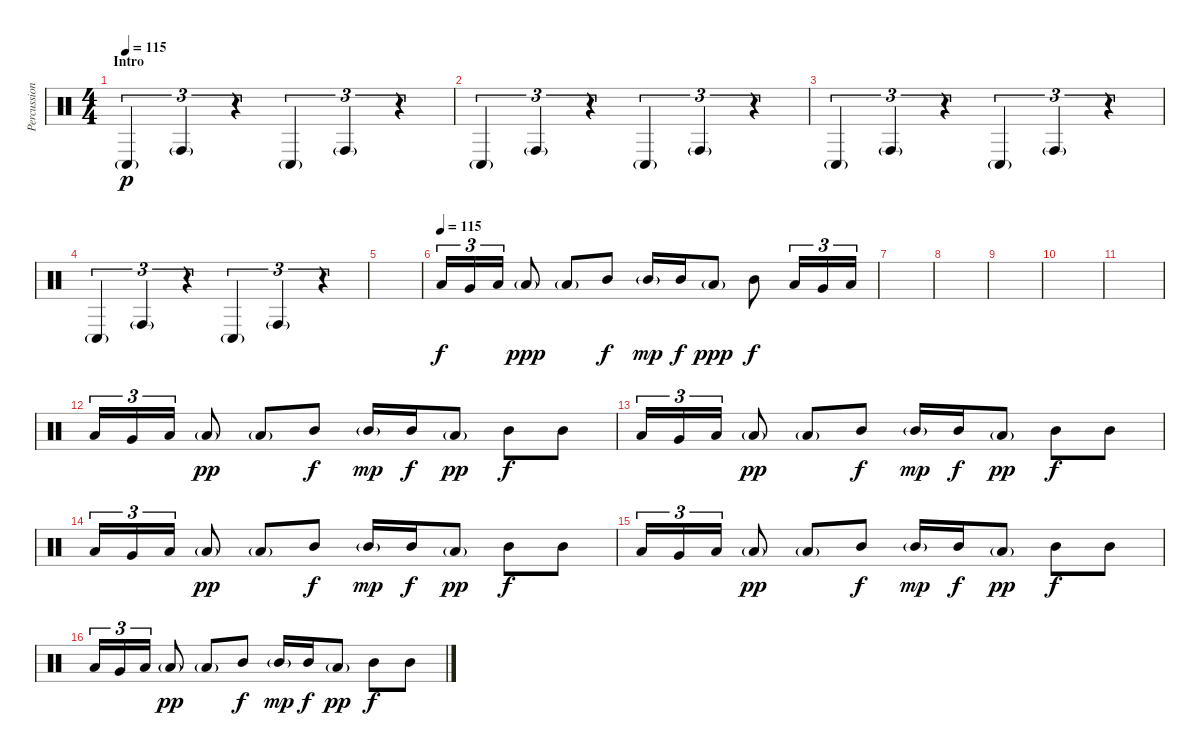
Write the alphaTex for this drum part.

\track ("Percussion - High Tom" "Percussion") {instrument percussion}
\staff {score}
\articulation defaults
\ts (4 4)
\section ("" "Intro")
\tempo 115
\tempo 109
\tempo 115
\clef neutral
\ks c "Conga low (hit)"{g}.4{tu (3 2) dy p} "Conga high (hit)"{g}.4{tu (3 2)}
r.4{tu (3 2)} "Conga low (hit)"{g}.4{tu (3 2)} "Conga high (hit)"{g}.4{tu (3 2)} r.4{tu (3 2)} |
"Conga low (hit)"{g}.4{tu (3 2)} "Conga high (hit)"{g}.4{tu (3 2)} r.4{tu (3 2)} "Conga low (hit)"{g}.4{tu (3 2)} "Conga high (hit)"{g}.4{tu (3 2)} r.4{tu (3 2)} |
"Conga low (hit)"{g}.4{tu (3 2)} "Conga high (hit)"{g}.4{tu (3 2)} r.4{tu (3 2)} "Conga low (hit)"{g}.4{tu (3 2)} "Conga high (hit)"{g}.4{tu (3 2)} r.4{tu (3 2)} |
"Conga low (hit)"{g}.4{tu (3 2)} "Conga high (hit)"{g}.4{tu (3 2)} r.4{tu (3 2)} "Conga low (hit)"{g}.4{tu (3 2)} "Conga high (hit)"{g}.4{tu (3 2)} r.4{tu (3 2)} |
|
\tempo (115)
"Low Floor Tom (hit)".16{tu (3 2) dy f} "Very Low Tom (hit)".16{tu (3 2)} "Low Floor Tom (hit)".16{tu (3 2)} "Low Tom (hit)"{g}.8{dy ppp} "Low Tom (hit)"{g}.8 "Mid Tom (hit)".8{dy f} "Mid Tom (hit)"{g}.16{dy mp} "Mid Tom (hit)".16{dy f} "Low Tom (hit)"{g}.8{dy ppp} "Mid Tom (hit)".8{dy f} "Low Floor Tom (hit)".16{tu (3 2)} "Very Low Tom (hit)".16{tu (3 2)} "Low Floor Tom (hit)".16{tu (3 2)} |
|
|
|
|
|
"Low Floor Tom (hit)".16{tu (3 2)} "Very Low Tom (hit)".16{tu (3 2)} "Low Floor Tom (hit)".16{tu (3 2)} "Low Tom (hit)"{g}.8{dy pp} "Low Tom (hit)"{g}.8 "Mid Tom (hit)".8{dy f} "Mid Tom (hit)"{g}.16{dy mp} "Mid Tom (hit)".16{dy f} "Low Tom (hit)"{g}.8{dy pp} "Mid Tom (hit)".8{dy f} "Mid Tom (hit)".8 |
"Low Floor Tom (hit)".16{tu (3 2)} "Very Low Tom (hit)".16{tu (3 2)} "Low Floor Tom (hit)".16{tu (3 2)} "Low Tom (hit)"{g}.8{dy pp} "Low Tom (hit)"{g}.8 "Mid Tom (hit)".8{dy f} "Mid Tom (hit)"{g}.16{dy mp} "Mid Tom (hit)".16{dy f} "Low Tom (hit)"{g}.8{dy pp} "Mid Tom (hit)".8{dy f} "Mid Tom (hit)".8 |
"Low Floor Tom (hit)".16{tu (3 2)} "Very Low Tom (hit)".16{tu (3 2)} "Low Floor Tom (hit)".16{tu (3 2)} "Low Tom (hit)"{g}.8{dy pp} "Low Tom (hit)"{g}.8 "Mid Tom (hit)".8{dy f} "Mid Tom (hit)"{g}.16{dy mp} "Mid Tom (hit)".16{dy f} "Low Tom (hit)"{g}.8{dy pp} "Mid Tom (hit)".8{dy f} "Mid Tom (hit)".8 |
"Low Floor Tom (hit)".16{tu (3 2)} "Very Low Tom (hit)".16{tu (3 2)} "Low Floor Tom (hit)".16{tu (3 2)} "Low Tom (hit)"{g}.8{dy pp} "Low Tom (hit)"{g}.8 "Mid Tom (hit)".8{dy f} "Mid Tom (hit)"{g}.16{dy mp} "Mid Tom (hit)".16{dy f} "Low Tom (hit)"{g}.8{dy pp} "Mid Tom (hit)".8{dy f} "Mid Tom (hit)".8 |
"Low Floor Tom (hit)".16{tu (3 2)} "Very Low Tom (hit)".16{tu (3 2)} "Low Floor Tom (hit)".16{tu (3 2)} "Low Tom (hit)"{g}.8{dy pp} "Low Tom (hit)"{g}.8 "Mid Tom (hit)".8{dy f} "Mid Tom (hit)"{g}.16{dy mp} "Mid Tom (hit)".16{dy f} "Low Tom (hit)"{g}.8{dy pp} "Mid Tom (hit)".8{dy f} "Mid Tom (hit)".8
